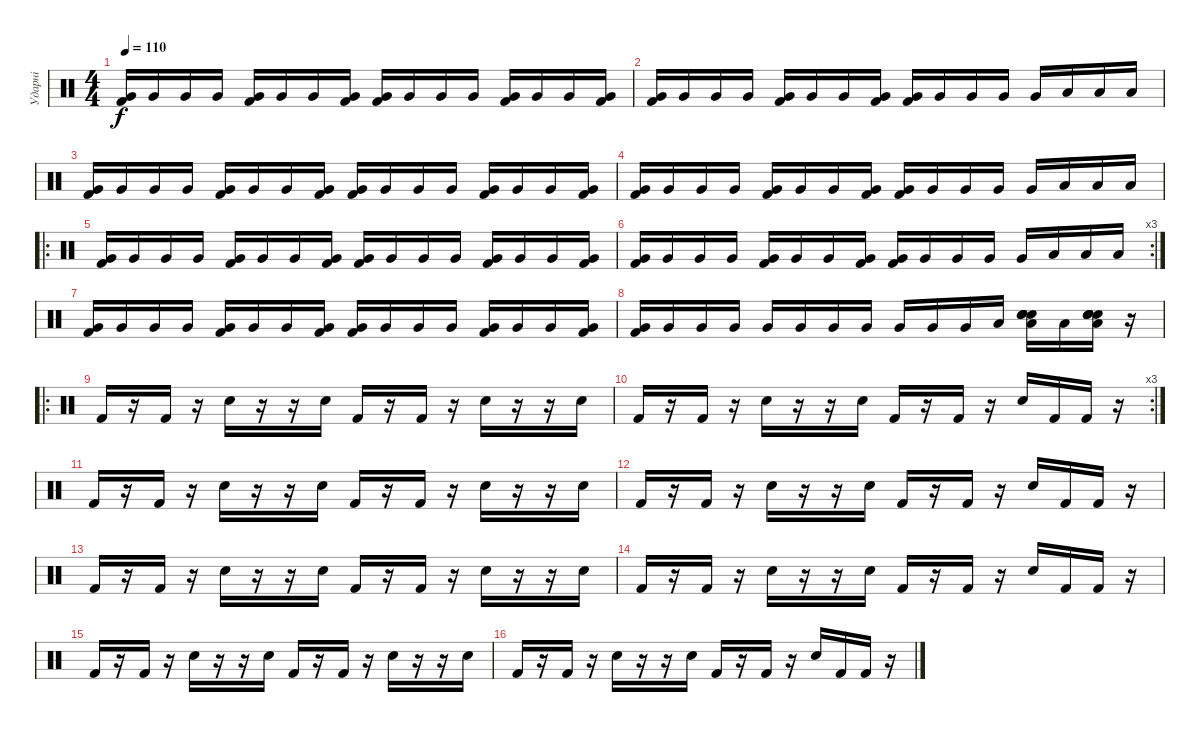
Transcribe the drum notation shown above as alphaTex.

\track ("Ударні" "Ударні") {instrument percussion}
\staff {score}
\articulation defaults
\ts (4 4)
\tempo 110
\clef neutral
\ks c
("Very Low Tom (hit)" "Kick (hit) 2").16{dy f} "Very Low Tom (hit)".16 "Very Low Tom (hit)".16 "Very Low Tom (hit)".16 ("Very Low Tom (hit)" "Kick (hit) 2").16 "Very Low Tom (hit)".16 "Very Low Tom (hit)".16 ("Very Low Tom (hit)" "Kick (hit) 2").16 ("Very Low Tom (hit)" "Kick (hit) 2").16 "Very Low Tom (hit)".16 "Very Low Tom (hit)".16 "Very Low Tom (hit)".16 ("Very Low Tom (hit)" "Kick (hit) 2").16 "Very Low Tom (hit)".16 "Very Low Tom (hit)".16 ("Very Low Tom (hit)" "Kick (hit) 2").16 |
("Very Low Tom (hit)" "Kick (hit) 2").16 "Very Low Tom (hit)".16 "Very Low Tom (hit)".16 "Very Low Tom (hit)".16 ("Very Low Tom (hit)" "Kick (hit) 2").16 "Very Low Tom (hit)".16 "Very Low Tom (hit)".16 ("Very Low Tom (hit)" "Kick (hit) 2").16 ("Very Low Tom (hit)" "Kick (hit) 2").16 "Very Low Tom (hit)".16 "Very Low Tom (hit)".16 "Very Low Tom (hit)".16 "Very Low Tom (hit)".16 "Low Floor Tom (hit)".16 "Low Floor Tom (hit)".16 "Low Floor Tom (hit)".16 |
("Very Low Tom (hit)" "Kick (hit) 2").16 "Very Low Tom (hit)".16 "Very Low Tom (hit)".16 "Very Low Tom (hit)".16 ("Very Low Tom (hit)" "Kick (hit) 2").16 "Very Low Tom (hit)".16 "Very Low Tom (hit)".16 ("Very Low Tom (hit)" "Kick (hit) 2").16 ("Very Low Tom (hit)" "Kick (hit) 2").16 "Very Low Tom (hit)".16 "Very Low Tom (hit)".16 "Very Low Tom (hit)".16 ("Very Low Tom (hit)" "Kick (hit) 2").16 "Very Low Tom (hit)".16 "Very Low Tom (hit)".16 ("Very Low Tom (hit)" "Kick (hit) 2").16 |
("Very Low Tom (hit)" "Kick (hit) 2").16 "Very Low Tom (hit)".16 "Very Low Tom (hit)".16 "Very Low Tom (hit)".16 ("Very Low Tom (hit)" "Kick (hit) 2").16 "Very Low Tom (hit)".16 "Very Low Tom (hit)".16 ("Very Low Tom (hit)" "Kick (hit) 2").16 ("Very Low Tom (hit)" "Kick (hit) 2").16 "Very Low Tom (hit)".16 "Very Low Tom (hit)".16 "Very Low Tom (hit)".16 "Very Low Tom (hit)".16 "Low Floor Tom (hit)".16 "Low Floor Tom (hit)".16 "Low Floor Tom (hit)".16 |
\ro
("Very Low Tom (hit)" "Kick (hit) 2").16 "Very Low Tom (hit)".16 "Very Low Tom (hit)".16 "Very Low Tom (hit)".16 ("Very Low Tom (hit)" "Kick (hit) 2").16 "Very Low Tom (hit)".16 "Very Low Tom (hit)".16 ("Very Low Tom (hit)" "Kick (hit) 2").16 ("Very Low Tom (hit)" "Kick (hit) 2").16 "Very Low Tom (hit)".16 "Very Low Tom (hit)".16 "Very Low Tom (hit)".16 ("Very Low Tom (hit)" "Kick (hit) 2").16 "Very Low Tom (hit)".16 "Very Low Tom (hit)".16 ("Very Low Tom (hit)" "Kick (hit) 2").16 |
\rc 3
("Very Low Tom (hit)" "Kick (hit) 2").16 "Very Low Tom (hit)".16 "Very Low Tom (hit)".16 "Very Low Tom (hit)".16 ("Very Low Tom (hit)" "Kick (hit) 2").16 "Very Low Tom (hit)".16 "Very Low Tom (hit)".16 ("Very Low Tom (hit)" "Kick (hit) 2").16 ("Very Low Tom (hit)" "Kick (hit) 2").16 "Very Low Tom (hit)".16 "Very Low Tom (hit)".16 "Very Low Tom (hit)".16 "Very Low Tom (hit)".16 "Low Floor Tom (hit)".16 "Low Floor Tom (hit)".16 "Low Floor Tom (hit)".16 |
("Very Low Tom (hit)" "Kick (hit) 2").16 "Very Low Tom (hit)".16 "Very Low Tom (hit)".16 "Very Low Tom (hit)".16 ("Very Low Tom (hit)" "Kick (hit) 2").16 "Very Low Tom (hit)".16 "Very Low Tom (hit)".16 ("Very Low Tom (hit)" "Kick (hit) 2").16 ("Very Low Tom (hit)" "Kick (hit) 2").16 "Very Low Tom (hit)".16 "Very Low Tom (hit)".16 "Very Low Tom (hit)".16 ("Very Low Tom (hit)" "Kick (hit) 2").16 "Very Low Tom (hit)".16 "Very Low Tom (hit)".16 ("Very Low Tom (hit)" "Kick (hit) 2").16 |
("Very Low Tom (hit)" "Kick (hit) 2").16 "Very Low Tom (hit)".16 "Very Low Tom (hit)".16 "Very Low Tom (hit)".16 "Very Low Tom (hit)".16 "Very Low Tom (hit)".16 "Very Low Tom (hit)".16 "Very Low Tom (hit)".16 "Very Low Tom (hit)".16 "Very Low Tom (hit)".16 "Very Low Tom (hit)".16 "Low Floor Tom (hit)".16 ("Low Floor Tom (hit)" "Electric Snare (hit)" "Electric Snare (hit)" "Electric Snare (hit)" "Electric Snare (hit)").16 "Low Floor Tom (hit)".16 ("Low Floor Tom (hit)" "Electric Snare (hit)" "Electric Snare (hit)" "Electric Snare (hit)" "Electric Snare (hit)").16 r.16 |
\ro "Kick (hit) 2".16{volume 14}
r.16 "Kick (hit) 2".16 r.16 "Electric Snare (hit)".16 r.16 r.16 "Electric Snare (hit)".16 "Kick (hit) 2".16 r.16 "Kick (hit) 2".16 r.16 "Electric Snare (hit)".16 r.16 r.16 "Electric Snare (hit)".16 |
\rc 3 "Kick (hit) 2".16{volume 14}
r.16 "Kick (hit) 2".16 r.16 "Electric Snare (hit)".16 r.16 r.16 "Electric Snare (hit)".16 "Kick (hit) 2".16 r.16 "Kick (hit) 2".16 r.16 "Electric Snare (hit)".16 "Kick (hit) 2".16 "Kick (hit) 2".16 r.16 |
"Kick (hit) 2".16{volume 14} r.16 "Kick (hit) 2".16 r.16 "Electric Snare (hit)".16 r.16 r.16 "Electric Snare (hit)".16 "Kick (hit) 2".16 r.16 "Kick (hit) 2".16 r.16 "Electric Snare (hit)".16 r.16 r.16 "Electric Snare (hit)".16 |
"Kick (hit) 2".16{volume 14} r.16 "Kick (hit) 2".16 r.16 "Electric Snare (hit)".16 r.16 r.16 "Electric Snare (hit)".16 "Kick (hit) 2".16 r.16 "Kick (hit) 2".16 r.16 "Electric Snare (hit)".16 "Kick (hit) 2".16 "Kick (hit) 2".16 r.16 |
"Kick (hit) 2".16{volume 14} r.16 "Kick (hit) 2".16 r.16 "Electric Snare (hit)".16 r.16 r.16 "Electric Snare (hit)".16 "Kick (hit) 2".16 r.16 "Kick (hit) 2".16 r.16 "Electric Snare (hit)".16 r.16 r.16 "Electric Snare (hit)".16 |
"Kick (hit) 2".16{volume 14} r.16 "Kick (hit) 2".16 r.16 "Electric Snare (hit)".16 r.16 r.16 "Electric Snare (hit)".16 "Kick (hit) 2".16 r.16 "Kick (hit) 2".16 r.16 "Electric Snare (hit)".16 "Kick (hit) 2".16 "Kick (hit) 2".16 r.16 |
"Kick (hit) 2".16{volume 14} r.16 "Kick (hit) 2".16 r.16 "Electric Snare (hit)".16 r.16 r.16 "Electric Snare (hit)".16 "Kick (hit) 2".16 r.16 "Kick (hit) 2".16 r.16 "Electric Snare (hit)".16 r.16 r.16 "Electric Snare (hit)".16 |
"Kick (hit) 2".16{volume 14} r.16 "Kick (hit) 2".16 r.16 "Electric Snare (hit)".16 r.16 r.16 "Electric Snare (hit)".16 "Kick (hit) 2".16 r.16 "Kick (hit) 2".16 r.16 "Electric Snare (hit)".16 "Kick (hit) 2".16 "Kick (hit) 2".16 r.16
